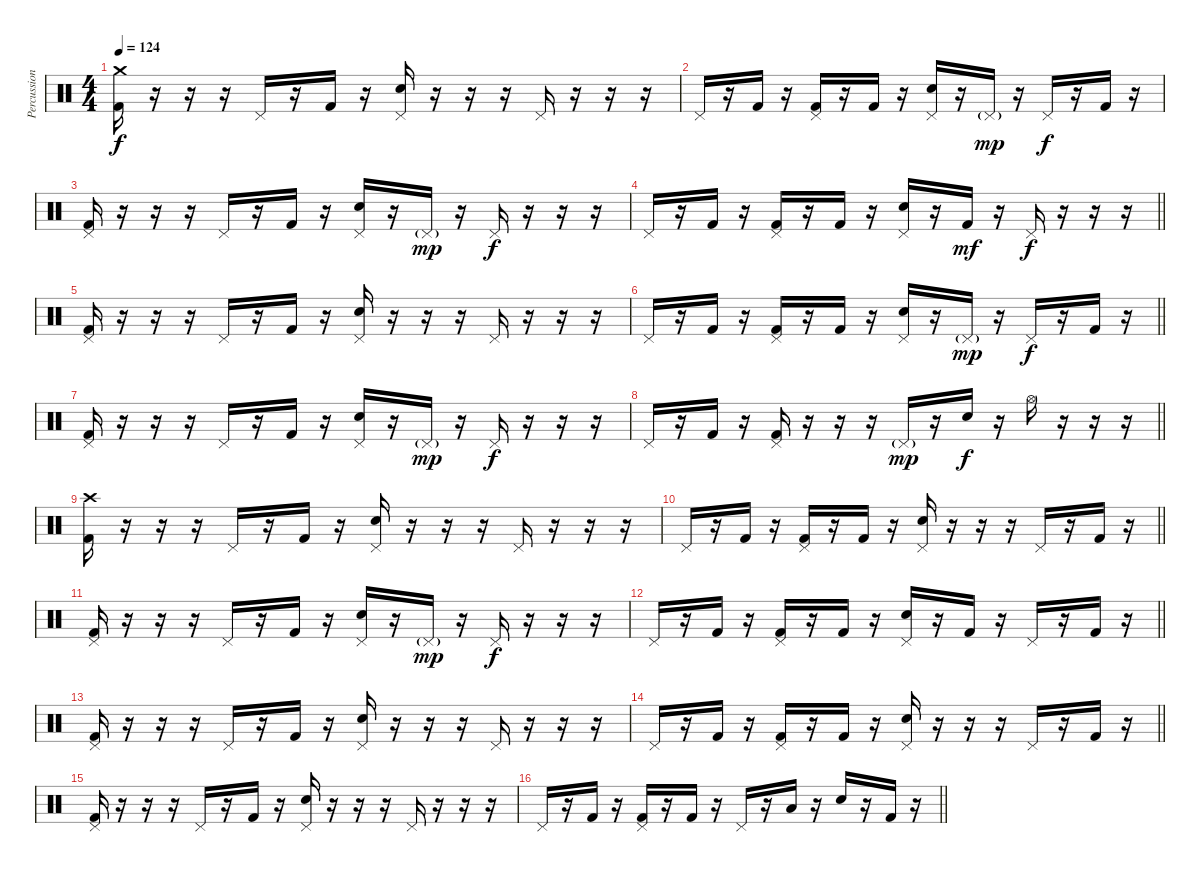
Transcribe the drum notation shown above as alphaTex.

\track ("Percussion" "Percussion") {instrument percussion}
\staff {score}
\articulation defaults
\ts (4 4)
\section ("" "")
\tempo 124
\clef neutral
\ks c
("Kick (hit) 2" "Crash medium (hit)").16{dy f volume 10} r.16 r.16 r.16 "Pedal Hi-Hat (hit)".16 r.16 "Kick (hit) 2".16 r.16 ("Electric Snare (hit)" "Pedal Hi-Hat (hit)").16 r.16 r.16 r.16 "Pedal Hi-Hat (hit)".16 r.16 r.16 r.16 |
"Pedal Hi-Hat (hit)".16 r.16 "Kick (hit) 2".16 r.16 ("Kick (hit) 2" "Pedal Hi-Hat (hit)").16 r.16 "Kick (hit) 2".16 r.16 ("Electric Snare (hit)" "Pedal Hi-Hat (hit)").16 r.16 "Pedal Hi-Hat (hit)"{g}.16{dy mp} r.16 "Pedal Hi-Hat (hit)".16{dy f} r.16 "Kick (hit) 2".16 r.16 |
("Kick (hit) 2" "Pedal Hi-Hat (hit)").16 r.16 r.16 r.16 "Pedal Hi-Hat (hit)".16 r.16 "Kick (hit) 2".16 r.16 ("Electric Snare (hit)" "Pedal Hi-Hat (hit)").16 r.16 "Pedal Hi-Hat (hit)"{g}.16{dy mp} r.16 "Pedal Hi-Hat (hit)".16{dy f} r.16 r.16 r.16 |
\barLineRight lightlight "Pedal Hi-Hat (hit)".16
r.16 "Kick (hit) 2".16 r.16 ("Kick (hit) 2" "Pedal Hi-Hat (hit)").16 r.16 "Kick (hit) 2".16 r.16 ("Electric Snare (hit)" "Pedal Hi-Hat (hit)").16 r.16 "Kick (hit) 2".16{dy mf} r.16 "Pedal Hi-Hat (hit)".16{dy f} r.16 r.16 r.16 |
("Kick (hit) 2" "Pedal Hi-Hat (hit)").16 r.16 r.16 r.16 "Pedal Hi-Hat (hit)".16 r.16 "Kick (hit) 2".16 r.16 ("Electric Snare (hit)" "Pedal Hi-Hat (hit)").16 r.16 r.16 r.16 "Pedal Hi-Hat (hit)".16 r.16 r.16 r.16 |
\barLineRight lightlight "Pedal Hi-Hat (hit)".16
r.16 "Kick (hit) 2".16 r.16 ("Kick (hit) 2" "Pedal Hi-Hat (hit)").16 r.16 "Kick (hit) 2".16 r.16 ("Electric Snare (hit)" "Pedal Hi-Hat (hit)").16 r.16 "Pedal Hi-Hat (hit)"{g}.16{dy mp} r.16 "Pedal Hi-Hat (hit)".16{dy f} r.16 "Kick (hit) 2".16 r.16 |
("Kick (hit) 2" "Pedal Hi-Hat (hit)").16 r.16 r.16 r.16 "Pedal Hi-Hat (hit)".16 r.16 "Kick (hit) 2".16 r.16 ("Electric Snare (hit)" "Pedal Hi-Hat (hit)").16 r.16 "Pedal Hi-Hat (hit)"{g}.16{dy mp} r.16 "Pedal Hi-Hat (hit)".16{dy f} r.16 r.16 r.16 |
\barLineRight lightlight "Pedal Hi-Hat (hit)".16
r.16 "Kick (hit) 2".16 r.16 ("Kick (hit) 2" "Pedal Hi-Hat (hit)").16 r.16 r.16 r.16 "Pedal Hi-Hat (hit)"{g}.16{dy mp} r.16 "Electric Snare (hit)".16{dy f} r.16 "Hi-Hat (open)".16 r.16 r.16 r.16 |
("Kick (hit) 2" "Crash high (hit)").16 r.16 r.16 r.16 "Pedal Hi-Hat (hit)".16 r.16 "Kick (hit) 2".16 r.16 ("Electric Snare (hit)" "Pedal Hi-Hat (hit)").16 r.16 r.16 r.16 "Pedal Hi-Hat (hit)".16 r.16 r.16 r.16 |
\barLineRight lightlight "Pedal Hi-Hat (hit)".16
r.16 "Kick (hit) 2".16 r.16 ("Kick (hit) 2" "Pedal Hi-Hat (hit)").16 r.16 "Kick (hit) 2".16 r.16 ("Electric Snare (hit)" "Pedal Hi-Hat (hit)").16 r.16 r.16 r.16 "Pedal Hi-Hat (hit)".16 r.16 "Kick (hit) 2".16 r.16 |
("Kick (hit) 2" "Pedal Hi-Hat (hit)").16 r.16 r.16 r.16 "Pedal Hi-Hat (hit)".16 r.16 "Kick (hit) 2".16 r.16 ("Electric Snare (hit)" "Pedal Hi-Hat (hit)").16 r.16 "Pedal Hi-Hat (hit)"{g}.16{dy mp} r.16 "Pedal Hi-Hat (hit)".16{dy f} r.16 r.16 r.16 |
\barLineRight lightlight "Pedal Hi-Hat (hit)".16
r.16 "Kick (hit) 2".16 r.16 ("Kick (hit) 2" "Pedal Hi-Hat (hit)").16 r.16 "Kick (hit) 2".16 r.16 ("Electric Snare (hit)" "Pedal Hi-Hat (hit)").16 r.16 "Kick (hit) 2".16 r.16 "Pedal Hi-Hat (hit)".16 r.16 "Kick (hit) 2".16 r.16 |
("Kick (hit) 2" "Pedal Hi-Hat (hit)").16 r.16 r.16 r.16 "Pedal Hi-Hat (hit)".16 r.16 "Kick (hit) 2".16 r.16 ("Electric Snare (hit)" "Pedal Hi-Hat (hit)").16 r.16 r.16 r.16 "Pedal Hi-Hat (hit)".16 r.16 r.16 r.16 |
\barLineRight lightlight "Pedal Hi-Hat (hit)".16
r.16 "Kick (hit) 2".16 r.16 ("Kick (hit) 2" "Pedal Hi-Hat (hit)").16 r.16 "Kick (hit) 2".16 r.16 ("Electric Snare (hit)" "Pedal Hi-Hat (hit)").16 r.16 r.16 r.16 "Pedal Hi-Hat (hit)".16 r.16 "Kick (hit) 2".16 r.16 |
("Kick (hit) 2" "Pedal Hi-Hat (hit)").16 r.16 r.16 r.16 "Pedal Hi-Hat (hit)".16 r.16 "Kick (hit) 2".16 r.16 ("Electric Snare (hit)" "Pedal Hi-Hat (hit)").16 r.16 r.16 r.16 "Pedal Hi-Hat (hit)".16 r.16 r.16 r.16 |
\barLineRight lightlight "Pedal Hi-Hat (hit)".16
r.16 "Kick (hit) 2".16 r.16 ("Kick (hit) 2" "Pedal Hi-Hat (hit)").16 r.16 "Kick (hit) 2".16 r.16 "Pedal Hi-Hat (hit)".16 r.16 "Low Tom (hit)".16 r.16 "Electric Snare (hit)".16 r.16 "Kick (hit) 2".16 r.16
